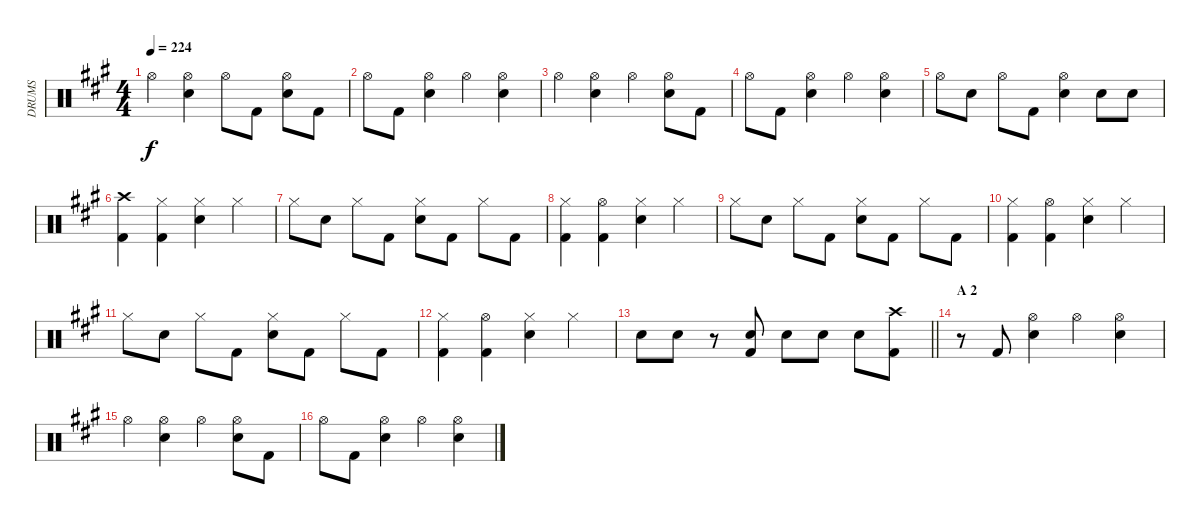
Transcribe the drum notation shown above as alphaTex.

\track ("DRUMS" "DRUMS") {instrument percussion}
\staff {score}
\articulation defaults
\ts (4 4)
\tempo 224
\clef neutral
\ks a "Hi-Hat (open)".4{dy f}
("Hi-Hat (open)" "Snare (hit) 2").4 "Hi-Hat (open)".8 "Kick (hit) 2".8 ("Hi-Hat (open)" "Snare (hit) 2").8 "Kick (hit) 2".8 |
"Hi-Hat (open)".8 "Kick (hit) 2".8 ("Hi-Hat (open)" "Snare (hit) 2").4 "Hi-Hat (open)".4 ("Hi-Hat (open)" "Snare (hit) 2").4 |
"Hi-Hat (open)".4 ("Hi-Hat (open)" "Snare (hit) 2").4 "Hi-Hat (open)".4 ("Hi-Hat (open)" "Snare (hit) 2").8 "Kick (hit) 2".8 |
"Hi-Hat (open)".8 "Kick (hit) 2".8 ("Hi-Hat (open)" "Snare (hit) 2").4 "Hi-Hat (open)".4 ("Hi-Hat (open)" "Snare (hit) 2").4 |
"Hi-Hat (open)".8 "Snare (hit) 2".8 "Hi-Hat (open)".8 "Kick (hit) 2".8 ("Hi-Hat (open)" "Snare (hit) 2").4 "Snare (hit) 2".8 "Snare (hit) 2".8 |
("Crash high (hit)" "Kick (hit) 2").4 ("Hi-Hat (closed)" "Kick (hit) 2").4 ("Hi-Hat (closed)" "Snare (hit) 2").4 "Hi-Hat (closed)".4 |
"Hi-Hat (closed)".8 "Snare (hit) 2".8 "Hi-Hat (closed)".8 "Kick (hit) 2".8 ("Hi-Hat (closed)" "Snare (hit) 2").8 "Kick (hit) 2".8 "Hi-Hat (closed)".8 "Kick (hit) 2".8 |
("Hi-Hat (closed)" "Kick (hit) 2").4 ("Hi-Hat (open)" "Kick (hit) 2").4 ("Hi-Hat (closed)" "Snare (hit) 2").4 "Hi-Hat (closed)".4 |
"Hi-Hat (closed)".8 "Snare (hit) 2".8 "Hi-Hat (closed)".8 "Kick (hit) 2".8 ("Hi-Hat (closed)" "Snare (hit) 2").8 "Kick (hit) 2".8 "Hi-Hat (closed)".8 "Kick (hit) 2".8 |
("Hi-Hat (closed)" "Kick (hit) 2").4 ("Hi-Hat (open)" "Kick (hit) 2").4 ("Hi-Hat (closed)" "Snare (hit) 2").4 "Hi-Hat (closed)".4 |
"Hi-Hat (closed)".8 "Snare (hit) 2".8 "Hi-Hat (closed)".8 "Kick (hit) 2".8 ("Hi-Hat (closed)" "Snare (hit) 2").8 "Kick (hit) 2".8 "Hi-Hat (closed)".8 "Kick (hit) 2".8 |
("Hi-Hat (closed)" "Kick (hit) 2").4 ("Hi-Hat (open)" "Kick (hit) 2").4 ("Hi-Hat (closed)" "Snare (hit) 2").4 "Hi-Hat (closed)".4 |
\barLineRight lightlight "Snare (hit) 2".8 "Snare (hit) 2".8
r.8 ("Snare (hit) 2" "Kick (hit) 2").8 "Snare (hit) 2".8 "Snare (hit) 2".8 "Snare (hit) 2".8 ("Crash high (hit)" "Kick (hit) 2").8 |
\section ("" "A 2")
r.8 "Kick (hit) 2".8 ("Hi-Hat (open)" "Snare (hit) 2").4 "Hi-Hat (open)".4 ("Hi-Hat (open)" "Snare (hit) 2").4 |
"Hi-Hat (open)".4 ("Hi-Hat (open)" "Snare (hit) 2").4 "Hi-Hat (open)".4 ("Hi-Hat (open)" "Snare (hit) 2").8 "Kick (hit) 2".8 |
"Hi-Hat (open)".8 "Kick (hit) 2".8 ("Hi-Hat (open)" "Snare (hit) 2").4 "Hi-Hat (open)".4 ("Hi-Hat (open)" "Snare (hit) 2").4
